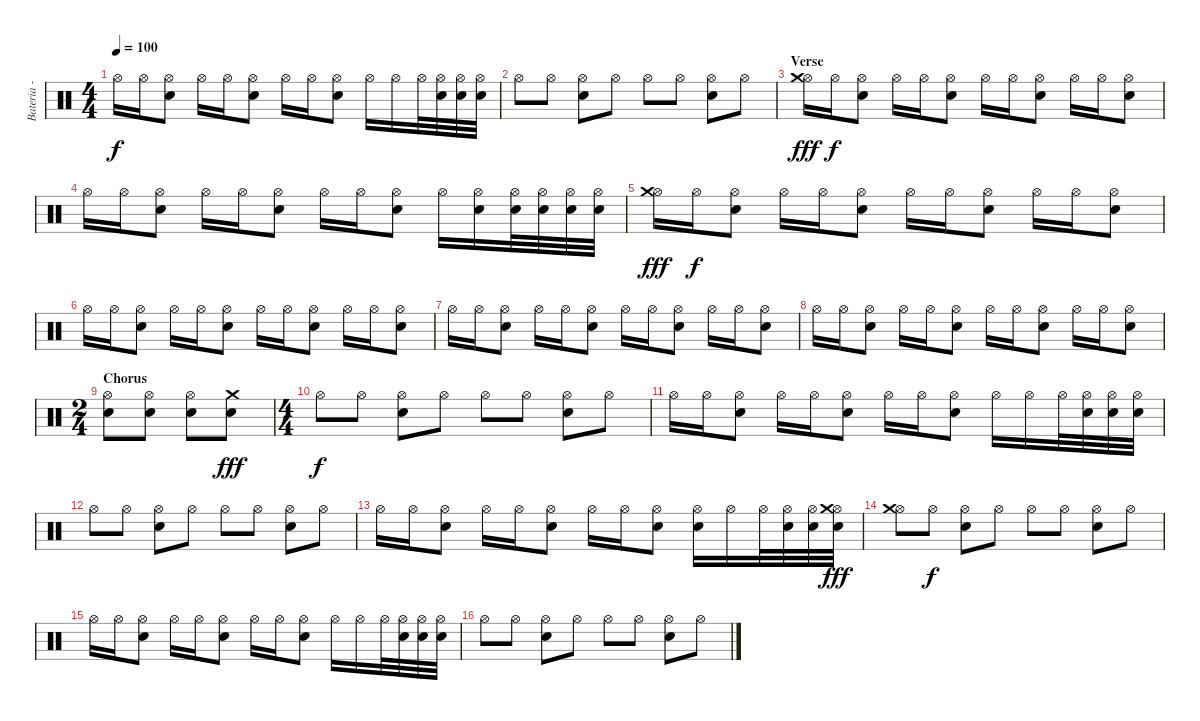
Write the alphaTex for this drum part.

\track ("Bateria - Larzon" "Bateria - ") {instrument percussion}
\staff {score}
\articulation defaults
\ts (4 4)
\tempo 100
\clef neutral
\ks c "Hi-Hat (open)".16{dy f} "Hi-Hat (open)".16
("Hi-Hat (open)" "Snare (hit) 2").8 "Hi-Hat (open)".16 "Hi-Hat (open)".16 ("Hi-Hat (open)" "Snare (hit) 2").8 "Hi-Hat (open)".16 "Hi-Hat (open)".16 ("Hi-Hat (open)" "Snare (hit) 2").8 "Hi-Hat (open)".16 "Hi-Hat (open)".16 "Hi-Hat (open)".32 ("Hi-Hat (open)" "Snare (hit) 2").32 ("Hi-Hat (open)" "Snare (hit) 2").32 ("Hi-Hat (open)" "Snare (hit) 2").32 |
"Hi-Hat (open)".8 "Hi-Hat (open)".8 ("Hi-Hat (open)" "Snare (hit) 2").8 "Hi-Hat (open)".8 "Hi-Hat (open)".8 "Hi-Hat (open)".8 ("Hi-Hat (open)" "Snare (hit) 2").8 "Hi-Hat (open)".8 |
\section ("" "Verse")
("Hi-Hat (open)" "Crash medium (hit)").16{dy fff} "Hi-Hat (open)".16{dy f} ("Hi-Hat (open)" "Snare (hit) 2").8 "Hi-Hat (open)".16 "Hi-Hat (open)".16 ("Hi-Hat (open)" "Snare (hit) 2").8 "Hi-Hat (open)".16 "Hi-Hat (open)".16 ("Hi-Hat (open)" "Snare (hit) 2").8 "Hi-Hat (open)".16 "Hi-Hat (open)".16 ("Hi-Hat (open)" "Snare (hit) 2").8 |
"Hi-Hat (open)".16 "Hi-Hat (open)".16 ("Hi-Hat (open)" "Snare (hit) 2").8 "Hi-Hat (open)".16 "Hi-Hat (open)".16 ("Hi-Hat (open)" "Snare (hit) 2").8 "Hi-Hat (open)".16 "Hi-Hat (open)".16 ("Hi-Hat (open)" "Snare (hit) 2").8 "Hi-Hat (open)".16 ("Hi-Hat (open)" "Snare (hit) 2").16 ("Hi-Hat (open)" "Snare (hit) 2").32 ("Hi-Hat (open)" "Snare (hit) 2").32 ("Hi-Hat (open)" "Snare (hit) 2").32 ("Hi-Hat (open)" "Snare (hit) 2").32 |
("Hi-Hat (open)" "Crash medium (hit)").16{dy fff} "Hi-Hat (open)".16{dy f} ("Hi-Hat (open)" "Snare (hit) 2").8 "Hi-Hat (open)".16 "Hi-Hat (open)".16 ("Hi-Hat (open)" "Snare (hit) 2").8 "Hi-Hat (open)".16 "Hi-Hat (open)".16 ("Hi-Hat (open)" "Snare (hit) 2").8 "Hi-Hat (open)".16 "Hi-Hat (open)".16 ("Hi-Hat (open)" "Snare (hit) 2").8 |
"Hi-Hat (open)".16 "Hi-Hat (open)".16 ("Hi-Hat (open)" "Snare (hit) 2").8 "Hi-Hat (open)".16 "Hi-Hat (open)".16 ("Hi-Hat (open)" "Snare (hit) 2").8 "Hi-Hat (open)".16 "Hi-Hat (open)".16 ("Hi-Hat (open)" "Snare (hit) 2").8 "Hi-Hat (open)".16 "Hi-Hat (open)".16 ("Hi-Hat (open)" "Snare (hit) 2").8 |
"Hi-Hat (open)".16 "Hi-Hat (open)".16 ("Hi-Hat (open)" "Snare (hit) 2").8 "Hi-Hat (open)".16 "Hi-Hat (open)".16 ("Hi-Hat (open)" "Snare (hit) 2").8 "Hi-Hat (open)".16 "Hi-Hat (open)".16 ("Hi-Hat (open)" "Snare (hit) 2").8 "Hi-Hat (open)".16 "Hi-Hat (open)".16 ("Hi-Hat (open)" "Snare (hit) 2").8 |
"Hi-Hat (open)".16 "Hi-Hat (open)".16 ("Hi-Hat (open)" "Snare (hit) 2").8 "Hi-Hat (open)".16 "Hi-Hat (open)".16 ("Hi-Hat (open)" "Snare (hit) 2").8 "Hi-Hat (open)".16 "Hi-Hat (open)".16 ("Hi-Hat (open)" "Snare (hit) 2").8 "Hi-Hat (open)".16 "Hi-Hat (open)".16 ("Hi-Hat (open)" "Snare (hit) 2").8 |
\ts (2 4)
\section ("" "Chorus")
("Snare (hit) 2" "Hi-Hat (open)").8 ("Snare (hit) 2" "Hi-Hat (open)").8 ("Snare (hit) 2" "Hi-Hat (open)").8 ("Snare (hit) 2" "Crash medium (hit)").8{dy fff} |
\ts (4 4)
"Hi-Hat (open)".8{dy f} "Hi-Hat (open)".8 ("Hi-Hat (open)" "Snare (hit) 2").8 "Hi-Hat (open)".8 "Hi-Hat (open)".8 "Hi-Hat (open)".8 ("Hi-Hat (open)" "Snare (hit) 2").8 "Hi-Hat (open)".8 |
"Hi-Hat (open)".16 "Hi-Hat (open)".16 ("Hi-Hat (open)" "Snare (hit) 2").8 "Hi-Hat (open)".16 "Hi-Hat (open)".16 ("Hi-Hat (open)" "Snare (hit) 2").8 "Hi-Hat (open)".16 "Hi-Hat (open)".16 ("Hi-Hat (open)" "Snare (hit) 2").8 "Hi-Hat (open)".16 "Hi-Hat (open)".16 "Hi-Hat (open)".32 ("Hi-Hat (open)" "Snare (hit) 2").32 ("Hi-Hat (open)" "Snare (hit) 2").32 ("Hi-Hat (open)" "Snare (hit) 2").32 |
"Hi-Hat (open)".8 "Hi-Hat (open)".8 ("Hi-Hat (open)" "Snare (hit) 2").8 "Hi-Hat (open)".8 "Hi-Hat (open)".8 "Hi-Hat (open)".8 ("Hi-Hat (open)" "Snare (hit) 2").8 "Hi-Hat (open)".8 |
"Hi-Hat (open)".16 "Hi-Hat (open)".16 ("Hi-Hat (open)" "Snare (hit) 2").8 "Hi-Hat (open)".16 "Hi-Hat (open)".16 ("Hi-Hat (open)" "Snare (hit) 2").8 "Hi-Hat (open)".16 "Hi-Hat (open)".16 ("Hi-Hat (open)" "Snare (hit) 2").8 ("Hi-Hat (open)" "Snare (hit) 2").16 "Hi-Hat (open)".16 "Hi-Hat (open)".32 ("Hi-Hat (open)" "Snare (hit) 2").32 ("Hi-Hat (open)" "Snare (hit) 2").32 ("Hi-Hat (open)" "Snare (hit) 2" "Crash medium (hit)").32{dy fff} |
("Hi-Hat (open)" "Crash medium (hit)").8 "Hi-Hat (open)".8{dy f} ("Hi-Hat (open)" "Snare (hit) 2").8 "Hi-Hat (open)".8 "Hi-Hat (open)".8 "Hi-Hat (open)".8 ("Hi-Hat (open)" "Snare (hit) 2").8 "Hi-Hat (open)".8 |
"Hi-Hat (open)".16 "Hi-Hat (open)".16 ("Hi-Hat (open)" "Snare (hit) 2").8 "Hi-Hat (open)".16 "Hi-Hat (open)".16 ("Hi-Hat (open)" "Snare (hit) 2").8 "Hi-Hat (open)".16 "Hi-Hat (open)".16 ("Hi-Hat (open)" "Snare (hit) 2").8 "Hi-Hat (open)".16 "Hi-Hat (open)".16 "Hi-Hat (open)".32 ("Hi-Hat (open)" "Snare (hit) 2").32 ("Hi-Hat (open)" "Snare (hit) 2").32 ("Hi-Hat (open)" "Snare (hit) 2").32 |
"Hi-Hat (open)".8 "Hi-Hat (open)".8 ("Hi-Hat (open)" "Snare (hit) 2").8 "Hi-Hat (open)".8 "Hi-Hat (open)".8 "Hi-Hat (open)".8 ("Hi-Hat (open)" "Snare (hit) 2").8 "Hi-Hat (open)".8
